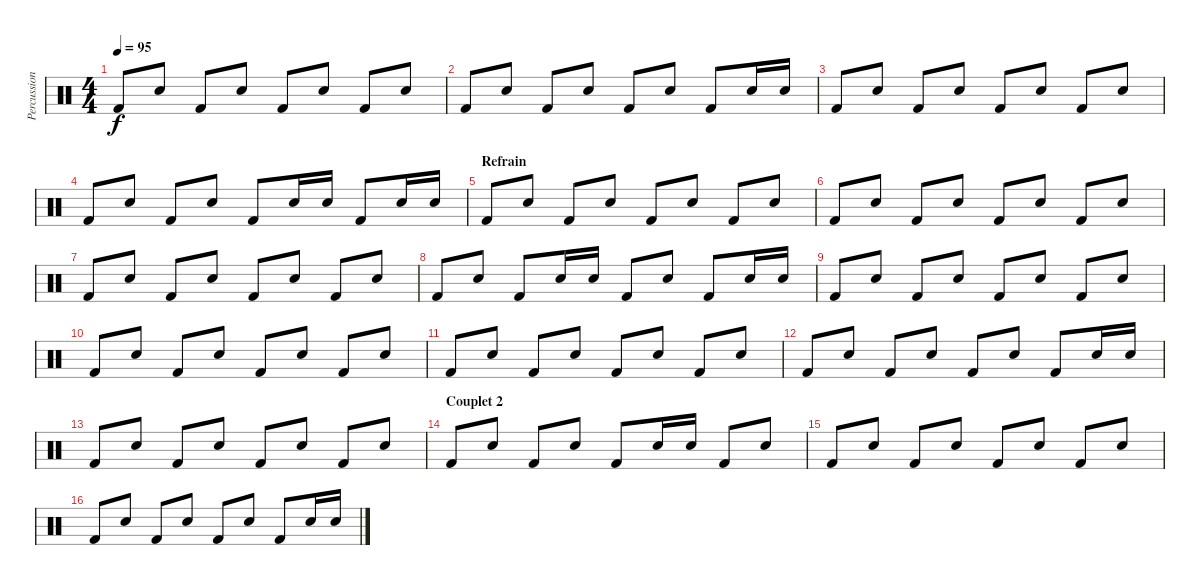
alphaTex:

\track ("Percussions" "Percussion") {instrument percussion}
\staff {score}
\articulation defaults
\ts (4 4)
\tempo 95
\clef neutral
\ks c "Kick (hit) 2".8{dy f} "Snare (hit) 2".8 "Kick (hit) 2".8 "Snare (hit) 2".8 "Kick (hit) 2".8 "Snare (hit) 2".8 "Kick (hit) 2".8 "Snare (hit) 2".8
|
"Kick (hit) 2".8 "Snare (hit) 2".8 "Kick (hit) 2".8 "Snare (hit) 2".8 "Kick (hit) 2".8 "Snare (hit) 2".8 "Kick (hit) 2".8 "Snare (hit) 2".16 "Snare (hit) 2".16 |
"Kick (hit) 2".8 "Snare (hit) 2".8 "Kick (hit) 2".8 "Snare (hit) 2".8 "Kick (hit) 2".8 "Snare (hit) 2".8 "Kick (hit) 2".8 "Snare (hit) 2".8 |
"Kick (hit) 2".8 "Snare (hit) 2".8 "Kick (hit) 2".8 "Snare (hit) 2".8 "Kick (hit) 2".8 "Snare (hit) 2".16 "Snare (hit) 2".16 "Kick (hit) 2".8 "Snare (hit) 2".16 "Snare (hit) 2".16 |
\section ("" "Refrain")
"Kick (hit) 2".8 "Snare (hit) 2".8 "Kick (hit) 2".8 "Snare (hit) 2".8 "Kick (hit) 2".8 "Snare (hit) 2".8 "Kick (hit) 2".8 "Snare (hit) 2".8 |
"Kick (hit) 2".8 "Snare (hit) 2".8 "Kick (hit) 2".8 "Snare (hit) 2".8 "Kick (hit) 2".8 "Snare (hit) 2".8 "Kick (hit) 2".8 "Snare (hit) 2".8 |
"Kick (hit) 2".8 "Snare (hit) 2".8 "Kick (hit) 2".8 "Snare (hit) 2".8 "Kick (hit) 2".8 "Snare (hit) 2".8 "Kick (hit) 2".8 "Snare (hit) 2".8 |
"Kick (hit) 2".8 "Snare (hit) 2".8 "Kick (hit) 2".8 "Snare (hit) 2".16 "Snare (hit) 2".16 "Kick (hit) 2".8 "Snare (hit) 2".8 "Kick (hit) 2".8 "Snare (hit) 2".16 "Snare (hit) 2".16 |
"Kick (hit) 2".8 "Snare (hit) 2".8 "Kick (hit) 2".8 "Snare (hit) 2".8 "Kick (hit) 2".8 "Snare (hit) 2".8 "Kick (hit) 2".8 "Snare (hit) 2".8 |
"Kick (hit) 2".8 "Snare (hit) 2".8 "Kick (hit) 2".8 "Snare (hit) 2".8 "Kick (hit) 2".8 "Snare (hit) 2".8 "Kick (hit) 2".8 "Snare (hit) 2".8 |
"Kick (hit) 2".8 "Snare (hit) 2".8 "Kick (hit) 2".8 "Snare (hit) 2".8 "Kick (hit) 2".8 "Snare (hit) 2".8 "Kick (hit) 2".8 "Snare (hit) 2".8 |
"Kick (hit) 2".8 "Snare (hit) 2".8 "Kick (hit) 2".8 "Snare (hit) 2".8 "Kick (hit) 2".8 "Snare (hit) 2".8 "Kick (hit) 2".8 "Snare (hit) 2".16 "Snare (hit) 2".16 |
"Kick (hit) 2".8 "Snare (hit) 2".8 "Kick (hit) 2".8 "Snare (hit) 2".8 "Kick (hit) 2".8 "Snare (hit) 2".8 "Kick (hit) 2".8 "Snare (hit) 2".8 |
\section ("" "Couplet 2")
"Kick (hit) 2".8 "Snare (hit) 2".8 "Kick (hit) 2".8 "Snare (hit) 2".8 "Kick (hit) 2".8 "Snare (hit) 2".16 "Snare (hit) 2".16 "Kick (hit) 2".8 "Snare (hit) 2".8 |
"Kick (hit) 2".8 "Snare (hit) 2".8 "Kick (hit) 2".8 "Snare (hit) 2".8 "Kick (hit) 2".8 "Snare (hit) 2".8 "Kick (hit) 2".8 "Snare (hit) 2".8 |
"Kick (hit) 2".8 "Snare (hit) 2".8 "Kick (hit) 2".8 "Snare (hit) 2".8 "Kick (hit) 2".8 "Snare (hit) 2".8 "Kick (hit) 2".8 "Snare (hit) 2".16 "Snare (hit) 2".16
